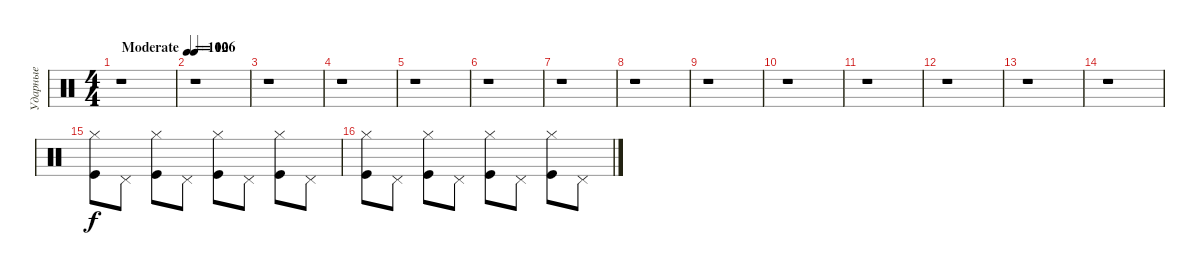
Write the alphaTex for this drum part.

\track ("Ударные" "Ударные") {instrument percussion}
\staff {score}
\articulation defaults
\ts (4 4)
\tempo (100 "Moderate")
\clef neutral
\ks c
r.1{dy f} |
\tempo 126
r.1 |
r.1 |
r.1 |
r.1 |
r.1 |
r.1 |
r.1 |
r.1 |
r.1 |
r.1 |
r.1 |
r.1 |
r.1 |
("Hi-Hat (closed)" "Kick (hit)").8 "Pedal Hi-Hat (hit)".8 ("Hi-Hat (closed)" "Kick (hit)").8 "Pedal Hi-Hat (hit)".8 ("Hi-Hat (closed)" "Kick (hit)").8 "Pedal Hi-Hat (hit)".8 ("Hi-Hat (closed)" "Kick (hit)").8 "Pedal Hi-Hat (hit)".8 |
("Hi-Hat (closed)" "Kick (hit)").8 "Pedal Hi-Hat (hit)".8 ("Hi-Hat (closed)" "Kick (hit)").8 "Pedal Hi-Hat (hit)".8 ("Hi-Hat (closed)" "Kick (hit)").8 "Pedal Hi-Hat (hit)".8 ("Hi-Hat (closed)" "Kick (hit)").8 "Pedal Hi-Hat (hit)".8
